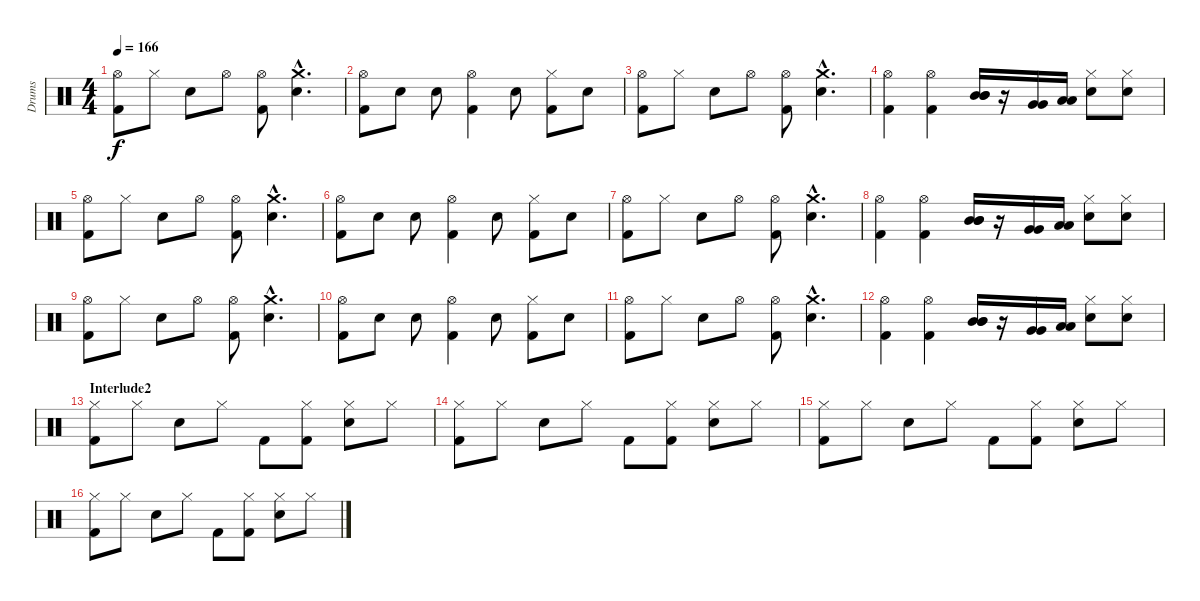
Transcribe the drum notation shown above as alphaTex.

\track ("Drums" "Drums") {instrument percussion}
\staff {score}
\articulation defaults
\ts (4 4)
\tempo 166
\clef neutral
\ks c
("Hi-Hat (open)" "Kick (hit) 2").8{dy f} "Hi-Hat (closed)".8 "Electric Snare (hit)".8 "Hi-Hat (open)".8 ("Hi-Hat (open)" "Kick (hit) 2").8 ("Crash medium (hit)"{hac} "Electric Snare (hit)"{hac}).4{d} |
("Hi-Hat (open)" "Kick (hit) 2").8 "Electric Snare (hit)".8 "Electric Snare (hit)".8 ("Hi-Hat (open)" "Kick (hit) 2").4 "Electric Snare (hit)".8 ("Hi-Hat (closed)" "Kick (hit) 2").8 "Electric Snare (hit)".8 |
("Hi-Hat (open)" "Kick (hit) 2").8 "Hi-Hat (closed)".8 "Electric Snare (hit)".8 "Hi-Hat (open)".8 ("Hi-Hat (open)" "Kick (hit) 2").8 ("Crash medium (hit)"{hac} "Electric Snare (hit)"{hac}).4{d} |
("Hi-Hat (open)" "Kick (hit) 2").4 ("Hi-Hat (open)" "Kick (hit) 2").4 ("Mid Tom (hit)" "Mid Tom (hit)" "Mid Tom (hit)").16 r.16 ("Very Low Tom (hit)" "Very Low Tom (hit)").16 ("Low Tom (hit)" "Low Tom (hit)").16 ("Hi-Hat (closed)" "Snare (hit) 2").8 ("Hi-Hat (closed)" "Snare (hit) 2").8 |
("Hi-Hat (open)" "Kick (hit) 2").8 "Hi-Hat (closed)".8 "Electric Snare (hit)".8 "Hi-Hat (open)".8 ("Hi-Hat (open)" "Kick (hit) 2").8 ("Crash medium (hit)"{hac} "Electric Snare (hit)"{hac}).4{d} |
("Hi-Hat (open)" "Kick (hit) 2").8 "Electric Snare (hit)".8 "Electric Snare (hit)".8 ("Hi-Hat (open)" "Kick (hit) 2").4 "Electric Snare (hit)".8 ("Hi-Hat (closed)" "Kick (hit) 2").8 "Electric Snare (hit)".8 |
("Hi-Hat (open)" "Kick (hit) 2").8 "Hi-Hat (closed)".8 "Electric Snare (hit)".8 "Hi-Hat (open)".8 ("Hi-Hat (open)" "Kick (hit) 2").8 ("Crash medium (hit)"{hac} "Electric Snare (hit)"{hac}).4{d} |
("Hi-Hat (open)" "Kick (hit) 2").4 ("Hi-Hat (open)" "Kick (hit) 2").4 ("Mid Tom (hit)" "Mid Tom (hit)" "Mid Tom (hit)").16 r.16 ("Very Low Tom (hit)" "Very Low Tom (hit)").16 ("Low Tom (hit)" "Low Tom (hit)").16 ("Hi-Hat (closed)" "Snare (hit) 2").8 ("Hi-Hat (closed)" "Snare (hit) 2").8 |
("Hi-Hat (open)" "Kick (hit) 2").8 "Hi-Hat (closed)".8 "Electric Snare (hit)".8 "Hi-Hat (open)".8 ("Hi-Hat (open)" "Kick (hit) 2").8 ("Crash medium (hit)"{hac} "Electric Snare (hit)"{hac}).4{d} |
("Hi-Hat (open)" "Kick (hit) 2").8 "Electric Snare (hit)".8 "Electric Snare (hit)".8 ("Hi-Hat (open)" "Kick (hit) 2").4 "Electric Snare (hit)".8 ("Hi-Hat (closed)" "Kick (hit) 2").8 "Electric Snare (hit)".8 |
("Hi-Hat (open)" "Kick (hit) 2").8 "Hi-Hat (closed)".8 "Electric Snare (hit)".8 "Hi-Hat (open)".8 ("Hi-Hat (open)" "Kick (hit) 2").8 ("Crash medium (hit)"{hac} "Electric Snare (hit)"{hac}).4{d} |
("Hi-Hat (open)" "Kick (hit) 2").4 ("Hi-Hat (open)" "Kick (hit) 2").4 ("Mid Tom (hit)" "Mid Tom (hit)" "Mid Tom (hit)").16 r.16 ("Very Low Tom (hit)" "Very Low Tom (hit)").16 ("Low Tom (hit)" "Low Tom (hit)").16 ("Hi-Hat (closed)" "Snare (hit) 2").8 ("Hi-Hat (closed)" "Snare (hit) 2").8 |
\section ("" "Interlude2")
("Hi-Hat (closed)" "Kick (hit) 2").8 "Hi-Hat (closed)".8 "Electric Snare (hit)".8 "Hi-Hat (closed)".8 "Kick (hit) 2".8 ("Hi-Hat (closed)" "Kick (hit) 2").8 ("Electric Snare (hit)" "Hi-Hat (closed)").8 "Hi-Hat (closed)".8 |
("Hi-Hat (closed)" "Kick (hit) 2").8 "Hi-Hat (closed)".8 "Electric Snare (hit)".8 "Hi-Hat (closed)".8 "Kick (hit) 2".8 ("Hi-Hat (closed)" "Kick (hit) 2").8 ("Electric Snare (hit)" "Hi-Hat (closed)").8 "Hi-Hat (closed)".8 |
("Hi-Hat (closed)" "Kick (hit) 2").8 "Hi-Hat (closed)".8 "Electric Snare (hit)".8 "Hi-Hat (closed)".8 "Kick (hit) 2".8 ("Hi-Hat (closed)" "Kick (hit) 2").8 ("Electric Snare (hit)" "Hi-Hat (closed)").8 "Hi-Hat (closed)".8 |
("Hi-Hat (closed)" "Kick (hit) 2").8 "Hi-Hat (closed)".8 "Electric Snare (hit)".8 "Hi-Hat (closed)".8 "Kick (hit) 2".8 ("Hi-Hat (closed)" "Kick (hit) 2").8 ("Electric Snare (hit)" "Hi-Hat (closed)").8 "Hi-Hat (closed)".8
